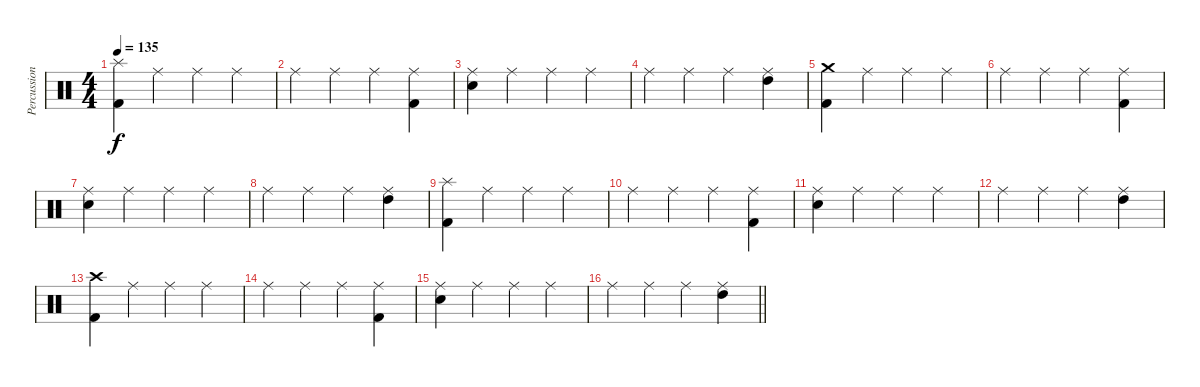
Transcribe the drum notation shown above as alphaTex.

\track ("Percussion" "Percussion") {instrument percussion}
\staff {score}
\articulation defaults
\ts (4 4)
\tempo 135
\clef neutral
\ks c
("Splash (hit)" "Kick (hit) 2").4{dy f} "Ride (middle)".4 "Ride (middle)".4 "Ride (middle)".4 |
"Ride (middle)".4 "Ride (middle)".4 "Ride (middle)".4 ("Ride (middle)" "Kick (hit) 2").4 |
("Ride (middle)" "Electric Snare (hit)").4 "Ride (middle)".4 "Ride (middle)".4 "Ride (middle)".4 |
"Ride (middle)".4 "Ride (middle)".4 "Ride (middle)".4 ("Ride (middle)" "High Tom (hit)").4 |
("Crash medium (hit)" "Kick (hit) 2").4 "Ride (middle)".4 "Ride (middle)".4 "Ride (middle)".4 |
"Ride (middle)".4 "Ride (middle)".4 "Ride (middle)".4 ("Ride (middle)" "Kick (hit) 2").4 |
("Ride (middle)" "Electric Snare (hit)").4 "Ride (middle)".4 "Ride (middle)".4 "Ride (middle)".4 |
"Ride (middle)".4 "Ride (middle)".4 "Ride (middle)".4 ("Ride (middle)" "High Tom (hit)").4 |
("Splash (hit)" "Kick (hit) 2").4 "Ride (middle)".4 "Ride (middle)".4 "Ride (middle)".4 |
"Ride (middle)".4 "Ride (middle)".4 "Ride (middle)".4 ("Ride (middle)" "Kick (hit) 2").4 |
("Ride (middle)" "Electric Snare (hit)").4 "Ride (middle)".4 "Ride (middle)".4 "Ride (middle)".4 |
"Ride (middle)".4 "Ride (middle)".4 "Ride (middle)".4 ("Ride (middle)" "High Tom (hit)").4 |
("Crash high (hit)" "Kick (hit) 2").4 "Ride (middle)".4 "Ride (middle)".4 "Ride (middle)".4 |
"Ride (middle)".4 "Ride (middle)".4 "Ride (middle)".4 ("Ride (middle)" "Kick (hit) 2").4 |
("Ride (middle)" "Electric Snare (hit)").4 "Ride (middle)".4 "Ride (middle)".4 "Ride (middle)".4 |
\barLineRight lightlight "Ride (middle)".4 "Ride (middle)".4 "Ride (middle)".4
("Ride (middle)" "High Tom (hit)").4
